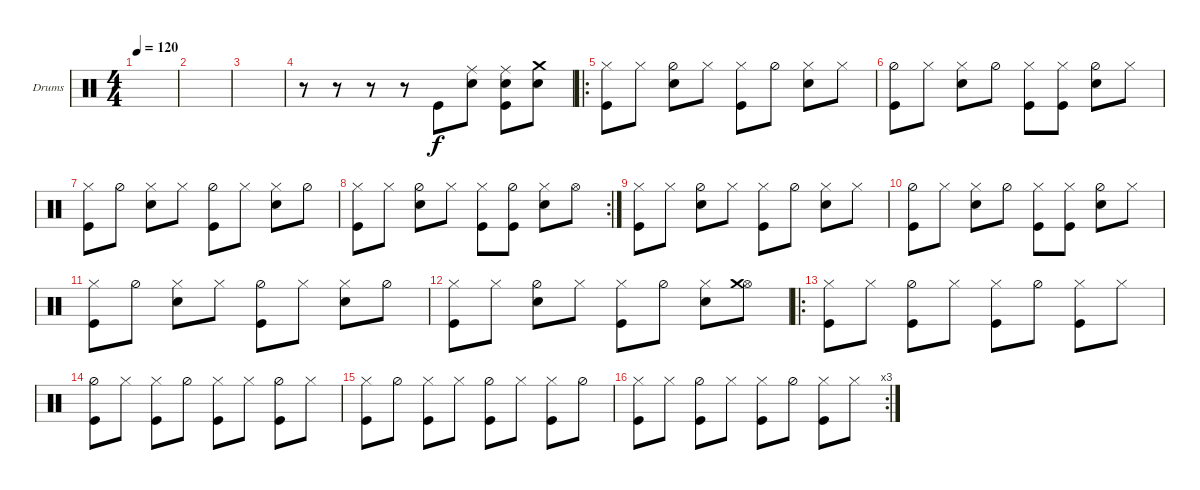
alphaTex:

\defaultSystemsLayout 4
\bracketExtendMode groupsimilarinstruments
\firstSystemTrackNameOrientation horizontal
\otherSystemsTrackNameOrientation horizontal
\track ("Drumkit" "Drums") {instrument percussion}
\staff {score}
\articulation defaults
\ts (4 4)
\tempo 120
\clef neutral
\scale
0.474178
\ks c
|
\scale
0.262911 |
\scale
0.262911 |
\scale
0.311111 r.8 r.8 r.8 r.8 "Kick (hit)".8 ("Ride (middle)" "Snare (hit) 2").8 ("Ride (middle)" "Snare (hit) 2" "Kick (hit)").8 ("Crash medium (hit)" "Snare (hit) 2").8 |
\ro
\scale
0.377778 ("Hi-Hat (closed)" "Kick (hit)").8 "Hi-Hat (closed)".8 ("Hi-Hat (half)" "Snare (hit) 2").8 "Hi-Hat (closed)".8 ("Hi-Hat (closed)" "Kick (hit)").8 "Hi-Hat (half)".8 ("Hi-Hat (closed)" "Snare (hit) 2").8 "Hi-Hat (closed)".8 |
\scale
0.311111 ("Hi-Hat (half)" "Kick (hit)").8 "Hi-Hat (closed)".8 ("Hi-Hat (closed)" "Snare (hit) 2").8 "Hi-Hat (half)".8 ("Hi-Hat (closed)" "Kick (hit)").8 ("Hi-Hat (closed)" "Kick (hit)").8 ("Hi-Hat (half)" "Snare (hit) 2").8 "Hi-Hat (closed)".8 |
\scale
0.321839 ("Hi-Hat (closed)" "Kick (hit)").8 "Hi-Hat (half)".8 ("Hi-Hat (closed)" "Snare (hit) 2").8 "Hi-Hat (closed)".8 ("Hi-Hat (half)" "Kick (hit)").8 "Hi-Hat (closed)".8 ("Hi-Hat (closed)" "Snare (hit) 2").8 "Hi-Hat (half)".8 |
\rc 2
\scale
0.356322 ("Hi-Hat (closed)" "Kick (hit)").8 "Hi-Hat (closed)".8 ("Hi-Hat (half)" "Snare (hit) 2").8 "Hi-Hat (closed)".8 ("Hi-Hat (closed)" "Kick (hit)").8 ("Hi-Hat (half)" "Kick (hit)").8 ("Hi-Hat (closed)" "Snare (hit) 2").8 "Hi-Hat (open)".8 |
\scale
0.321839 ("Hi-Hat (closed)" "Kick (hit)").8 "Hi-Hat (closed)".8 ("Hi-Hat (half)" "Snare (hit) 2").8 "Hi-Hat (closed)".8 ("Hi-Hat (closed)" "Kick (hit)").8 "Hi-Hat (half)".8 ("Hi-Hat (closed)" "Snare (hit) 2").8 "Hi-Hat (closed)".8 |
("Hi-Hat (half)" "Kick (hit)").8 "Hi-Hat (closed)".8 ("Hi-Hat (closed)" "Snare (hit) 2").8 "Hi-Hat (half)".8 ("Hi-Hat (closed)" "Kick (hit)").8 ("Hi-Hat (closed)" "Kick (hit)").8 ("Hi-Hat (half)" "Snare (hit) 2").8 "Hi-Hat (closed)".8 |
("Hi-Hat (closed)" "Kick (hit)").8 "Hi-Hat (half)".8 ("Hi-Hat (closed)" "Snare (hit) 2").8 "Hi-Hat (closed)".8 ("Hi-Hat (half)" "Kick (hit)").8 "Hi-Hat (closed)".8 ("Hi-Hat (closed)" "Snare (hit) 2").8 "Hi-Hat (half)".8 |
("Hi-Hat (closed)" "Kick (hit)").8 "Hi-Hat (closed)".8 ("Hi-Hat (half)" "Snare (hit) 2").8 "Hi-Hat (closed)".8 ("Hi-Hat (closed)" "Kick (hit)").8 "Hi-Hat (half)".8 ("Hi-Hat (closed)" "Snare (hit) 2").8 ("Hi-Hat (open)" "Crash medium (hit)").8 |
\ro
("Hi-Hat (closed)" "Kick (hit)").8 "Hi-Hat (closed)".8 ("Hi-Hat (half)" "Kick (hit)").8 "Hi-Hat (closed)".8 ("Hi-Hat (closed)" "Kick (hit)").8 "Hi-Hat (half)".8 ("Hi-Hat (closed)" "Kick (hit)").8 "Hi-Hat (closed)".8 |
("Hi-Hat (half)" "Kick (hit)").8 "Hi-Hat (closed)".8 ("Hi-Hat (closed)" "Kick (hit)").8 "Hi-Hat (half)".8 ("Hi-Hat (closed)" "Kick (hit)").8 "Hi-Hat (closed)".8 ("Hi-Hat (half)" "Kick (hit)").8 "Hi-Hat (closed)".8 |
("Hi-Hat (closed)" "Kick (hit)").8 "Hi-Hat (half)".8 ("Hi-Hat (closed)" "Kick (hit)").8 "Hi-Hat (closed)".8 ("Hi-Hat (half)" "Kick (hit)").8 "Hi-Hat (closed)".8 ("Hi-Hat (closed)" "Kick (hit)").8 "Hi-Hat (half)".8 |
\rc 3
("Hi-Hat (closed)" "Kick (hit)").8 "Hi-Hat (closed)".8 ("Hi-Hat (half)" "Kick (hit)").8 "Hi-Hat (closed)".8 ("Hi-Hat (closed)" "Kick (hit)").8 "Hi-Hat (half)".8 ("Hi-Hat (closed)" "Kick (hit)").8 "Hi-Hat (closed)".8
